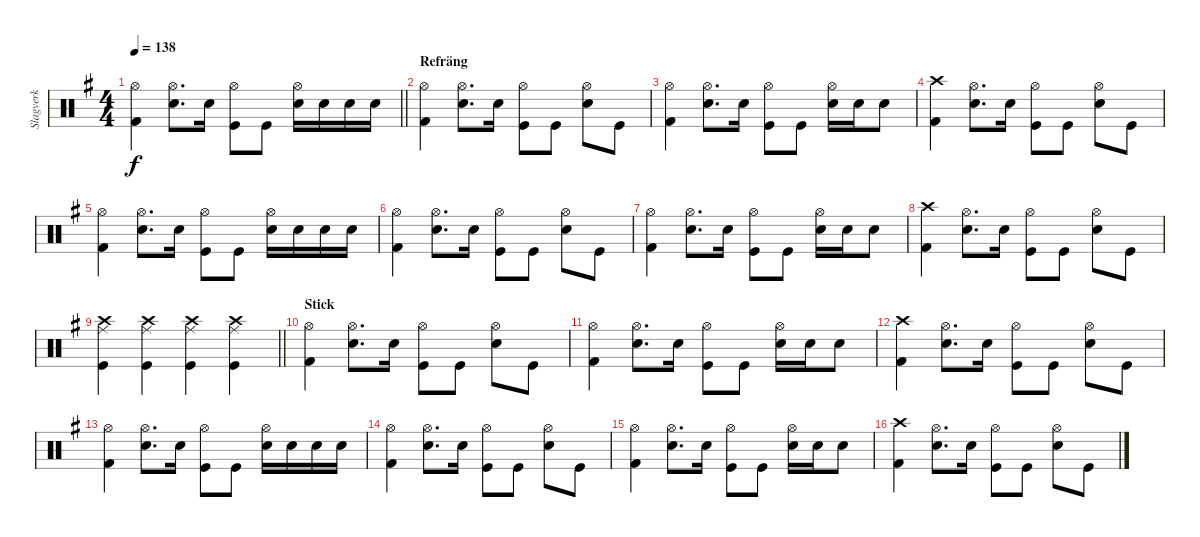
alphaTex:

\track ("Slagverk" "Slagverk") {instrument percussion}
\staff {score}
\articulation defaults
\ts (4 4)
\tempo 138
\clef neutral
\barLineRight lightlight
\ks g
("Hi-Hat (open)" "Kick (hit) 2").4{dy f} ("Hi-Hat (open)" "Snare (hit) 2").8{d} "Snare (hit) 2".16 ("Hi-Hat (open)" "Kick (hit)").8 "Kick (hit)".8 ("Hi-Hat (open)" "Snare (hit) 2").16 "Snare (hit) 2".16 "Snare (hit) 2".16 "Snare (hit) 2".16 |
\section ("" "Refräng")
("Hi-Hat (open)" "Kick (hit) 2").4 ("Hi-Hat (open)" "Snare (hit) 2").8{d} "Snare (hit) 2".16 ("Hi-Hat (open)" "Kick (hit)").8 "Kick (hit)".8 ("Hi-Hat (open)" "Snare (hit) 2").8 "Kick (hit)".8 |
("Hi-Hat (open)" "Kick (hit) 2").4 ("Hi-Hat (open)" "Snare (hit) 2").8{d} "Snare (hit) 2".16 ("Hi-Hat (open)" "Kick (hit)").8 "Kick (hit)".8 ("Hi-Hat (open)" "Snare (hit) 2").16 "Snare (hit) 2".16 "Snare (hit) 2".8 |
("Crash high (hit)" "Kick (hit) 2").4 ("Hi-Hat (open)" "Snare (hit) 2").8{d} "Snare (hit) 2".16 ("Hi-Hat (open)" "Kick (hit)").8 "Kick (hit)".8 ("Hi-Hat (open)" "Snare (hit) 2").8 "Kick (hit)".8 |
("Hi-Hat (open)" "Kick (hit) 2").4 ("Hi-Hat (open)" "Snare (hit) 2").8{d} "Snare (hit) 2".16 ("Hi-Hat (open)" "Kick (hit)").8 "Kick (hit)".8 ("Hi-Hat (open)" "Snare (hit) 2").16 "Snare (hit) 2".16 "Snare (hit) 2".16 "Snare (hit) 2".16 |
("Hi-Hat (open)" "Kick (hit) 2").4 ("Hi-Hat (open)" "Snare (hit) 2").8{d} "Snare (hit) 2".16 ("Hi-Hat (open)" "Kick (hit)").8 "Kick (hit)".8 ("Hi-Hat (open)" "Snare (hit) 2").8 "Kick (hit)".8 |
("Hi-Hat (open)" "Kick (hit) 2").4 ("Hi-Hat (open)" "Snare (hit) 2").8{d} "Snare (hit) 2".16 ("Hi-Hat (open)" "Kick (hit)").8 "Kick (hit)".8 ("Hi-Hat (open)" "Snare (hit) 2").16 "Snare (hit) 2".16 "Snare (hit) 2".8 |
("Crash high (hit)" "Kick (hit) 2").4 ("Hi-Hat (open)" "Snare (hit) 2").8{d} "Snare (hit) 2".16 ("Hi-Hat (open)" "Kick (hit)").8 "Kick (hit)".8 ("Hi-Hat (open)" "Snare (hit) 2").8 "Kick (hit)".8 |
\barLineRight lightlight
("Crash high (hit)" "Ride (middle)" "Kick (hit)").4 ("Crash high (hit)" "Ride (middle)" "Kick (hit)").4 ("Crash high (hit)" "Ride (middle)" "Kick (hit)").4 ("Crash high (hit)" "Ride (middle)" "Kick (hit)").4 |
\section ("" "Stick")
("Hi-Hat (open)" "Kick (hit) 2").4 ("Hi-Hat (open)" "Snare (hit) 2").8{d} "Snare (hit) 2".16 ("Hi-Hat (open)" "Kick (hit)").8 "Kick (hit)".8 ("Hi-Hat (open)" "Snare (hit) 2").8 "Kick (hit)".8 |
("Hi-Hat (open)" "Kick (hit) 2").4 ("Hi-Hat (open)" "Snare (hit) 2").8{d} "Snare (hit) 2".16 ("Hi-Hat (open)" "Kick (hit)").8 "Kick (hit)".8 ("Hi-Hat (open)" "Snare (hit) 2").16 "Snare (hit) 2".16 "Snare (hit) 2".8 |
("Crash high (hit)" "Kick (hit) 2").4 ("Hi-Hat (open)" "Snare (hit) 2").8{d} "Snare (hit) 2".16 ("Hi-Hat (open)" "Kick (hit)").8 "Kick (hit)".8 ("Hi-Hat (open)" "Snare (hit) 2").8 "Kick (hit)".8 |
("Hi-Hat (open)" "Kick (hit) 2").4 ("Hi-Hat (open)" "Snare (hit) 2").8{d} "Snare (hit) 2".16 ("Hi-Hat (open)" "Kick (hit)").8 "Kick (hit)".8 ("Hi-Hat (open)" "Snare (hit) 2").16 "Snare (hit) 2".16 "Snare (hit) 2".16 "Snare (hit) 2".16 |
("Hi-Hat (open)" "Kick (hit) 2").4 ("Hi-Hat (open)" "Snare (hit) 2").8{d} "Snare (hit) 2".16 ("Hi-Hat (open)" "Kick (hit)").8 "Kick (hit)".8 ("Hi-Hat (open)" "Snare (hit) 2").8 "Kick (hit)".8 |
("Hi-Hat (open)" "Kick (hit) 2").4 ("Hi-Hat (open)" "Snare (hit) 2").8{d} "Snare (hit) 2".16 ("Hi-Hat (open)" "Kick (hit)").8 "Kick (hit)".8 ("Hi-Hat (open)" "Snare (hit) 2").16 "Snare (hit) 2".16 "Snare (hit) 2".8 |
("Crash high (hit)" "Kick (hit) 2").4 ("Hi-Hat (open)" "Snare (hit) 2").8{d} "Snare (hit) 2".16 ("Hi-Hat (open)" "Kick (hit)").8 "Kick (hit)".8 ("Hi-Hat (open)" "Snare (hit) 2").8 "Kick (hit)".8
